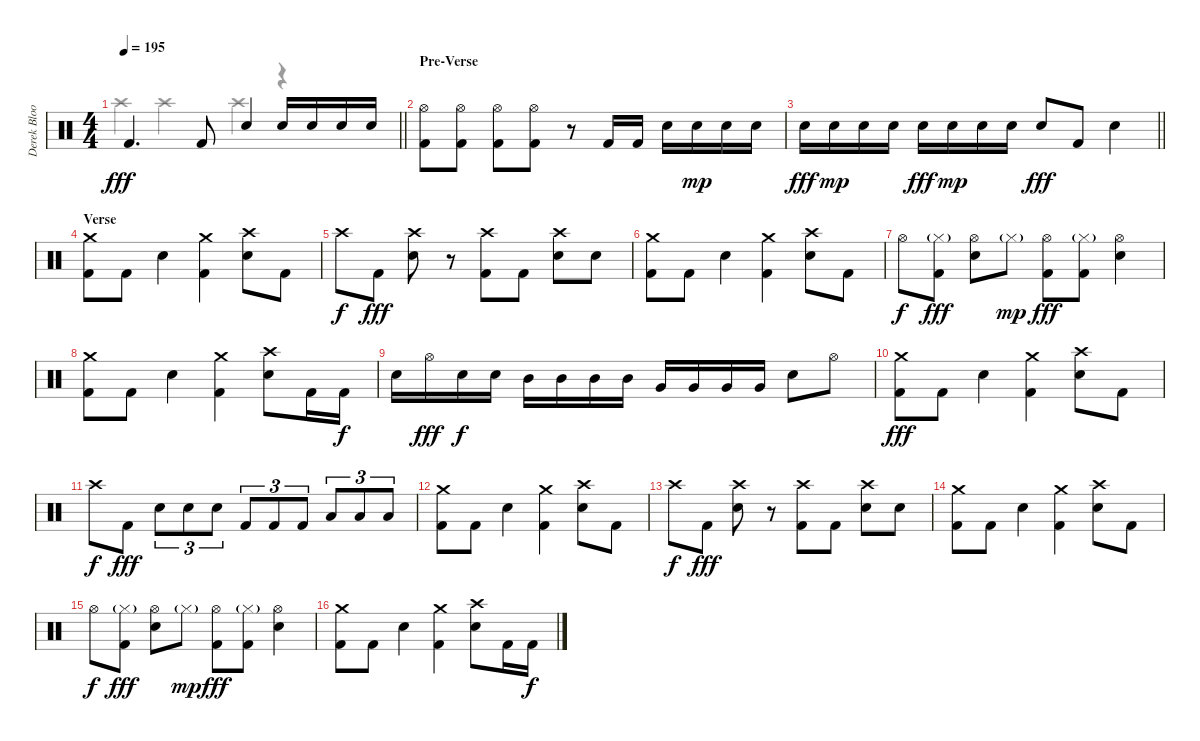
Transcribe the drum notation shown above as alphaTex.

\track ("Derek Bloom" "Derek Bloo") {instrument percussion}
\staff {score}
\articulation defaults
\voice
\ts (4 4)
\tempo 195
\clef neutral
\barLineRight lightlight
\ks c "Kick (hit) 2".4{d dy fff} "Kick (hit) 2".8 "Electric Snare (hit)".4 "Electric Snare (hit)".16 "Electric Snare (hit)".16 "Electric Snare (hit)".16 "Electric Snare (hit)".16
|
\section ("" "Pre-Verse")
("Hi-Hat (open)" "Kick (hit) 2").8 ("Hi-Hat (open)" "Kick (hit) 2").8 ("Hi-Hat (open)" "Kick (hit) 2").8 ("Hi-Hat (open)" "Kick (hit) 2").8 r.8 "Kick (hit) 2".16 "Kick (hit) 2".16 "Electric Snare (hit)".16 "Electric Snare (hit)".16{dy mp} "Electric Snare (hit)".16 "Electric Snare (hit)".16 |
\barLineRight lightlight "Electric Snare (hit)".16{dy fff} "Electric Snare (hit)".16{dy mp} "Electric Snare (hit)".16 "Electric Snare (hit)".16 "Electric Snare (hit)".16{dy fff} "Electric Snare (hit)".16{dy mp} "Electric Snare (hit)".16 "Electric Snare (hit)".16 "Electric Snare (hit)".8{dy fff} "Kick (hit) 2".8 "Electric Snare (hit)".4
|
\section ("" "Verse")
("Crash medium (hit)" "Kick (hit) 2").8 "Kick (hit) 2".8 "Electric Snare (hit)".4 ("Crash medium (hit)" "Kick (hit) 2").4 ("Crash high (hit)" "Electric Snare (hit)").8 "Kick (hit) 2".8 |
"Crash high (hit)".8{dy f} "Kick (hit) 2".8{dy fff} ("Crash high (hit)" "Electric Snare (hit)").8 r.8 ("Crash high (hit)" "Kick (hit) 2").8 "Kick (hit) 2".8 ("Crash high (hit)" "Electric Snare (hit)").8 "Electric Snare (hit)".8 |
("Crash medium (hit)" "Kick (hit) 2").8 "Kick (hit) 2".8 "Electric Snare (hit)".4 ("Crash medium (hit)" "Kick (hit) 2").4 ("Crash high (hit)" "Electric Snare (hit)").8 "Kick (hit) 2".8 |
"Hi-Hat (open)".8{dy f} ("Hi-Hat (closed)"{g} "Kick (hit) 2").8{dy fff} ("Hi-Hat (open)" "Electric Snare (hit)").8 "Hi-Hat (closed)"{g}.8{dy mp} ("Hi-Hat (open)" "Kick (hit) 2").8{dy fff} ("Hi-Hat (closed)"{g} "Kick (hit) 2").8 ("Hi-Hat (open)" "Electric Snare (hit)").4 |
("Crash medium (hit)" "Kick (hit) 2").8 "Kick (hit) 2".8 "Electric Snare (hit)".4 ("Crash medium (hit)" "Kick (hit) 2").4 ("Crash high (hit)" "Electric Snare (hit)").8 "Kick (hit) 2".16 "Kick (hit) 2".16{dy f} |
"Electric Snare (hit)".16 "Hi-Hat (open)".16{dy fff} "Electric Snare (hit)".16{dy f} "Electric Snare (hit)".16 "Mid Tom (hit)".16 "Mid Tom (hit)".16 "Mid Tom (hit)".16 "Mid Tom (hit)".16 "Very Low Tom (hit)".16 "Very Low Tom (hit)".16 "Very Low Tom (hit)".16 "Very Low Tom (hit)".16 "Electric Snare (hit)".8 "Hi-Hat (open)".8 |
("Crash medium (hit)" "Kick (hit) 2").8{dy fff} "Kick (hit) 2".8 "Electric Snare (hit)".4 ("Crash medium (hit)" "Kick (hit) 2").4 ("Crash high (hit)" "Electric Snare (hit)").8 "Kick (hit) 2".8 |
"Crash high (hit)".8{dy f} "Kick (hit) 2".8{dy fff} "Electric Snare (hit)".8{tu (3 2)} "Electric Snare (hit)".8{tu (3 2)} "Electric Snare (hit)".8{tu (3 2)} "Kick (hit) 2".8{tu (3 2)} "Kick (hit) 2".8{tu (3 2)} "Kick (hit) 2".8{tu (3 2)} "Low Floor Tom (hit)".8{tu (3 2)} "Low Floor Tom (hit)".8{tu (3 2)} "Low Floor Tom (hit)".8{tu (3 2)} |
("Crash medium (hit)" "Kick (hit) 2").8 "Kick (hit) 2".8 "Electric Snare (hit)".4 ("Crash medium (hit)" "Kick (hit) 2").4 ("Crash high (hit)" "Electric Snare (hit)").8 "Kick (hit) 2".8 |
"Crash high (hit)".8{dy f} "Kick (hit) 2".8{dy fff} ("Crash high (hit)" "Electric Snare (hit)").8 r.8 ("Crash high (hit)" "Kick (hit) 2").8 "Kick (hit) 2".8 ("Crash high (hit)" "Electric Snare (hit)").8 "Electric Snare (hit)".8 |
("Crash medium (hit)" "Kick (hit) 2").8 "Kick (hit) 2".8 "Electric Snare (hit)".4 ("Crash medium (hit)" "Kick (hit) 2").4 ("Crash high (hit)" "Electric Snare (hit)").8 "Kick (hit) 2".8 |
"Hi-Hat (open)".8{dy f} ("Hi-Hat (closed)"{g} "Kick (hit) 2").8{dy fff} ("Hi-Hat (open)" "Electric Snare (hit)").8 "Hi-Hat (closed)"{g}.8{dy mp} ("Hi-Hat (open)" "Kick (hit) 2").8{dy fff} ("Hi-Hat (closed)"{g} "Kick (hit) 2").8 ("Hi-Hat (open)" "Electric Snare (hit)").4 |
("Crash medium (hit)" "Kick (hit) 2").8 "Kick (hit) 2".8 "Electric Snare (hit)".4 ("Crash medium (hit)" "Kick (hit) 2").4 ("Crash high (hit)" "Electric Snare (hit)").8 "Kick (hit) 2".16 "Kick (hit) 2".16{dy f}
\voice
\clef neutral
\ottava regular
\simile none
\barLineRight lightlight
\ks c "Crash high (hit)".4{dy fff} "Crash high (hit)".4 "Crash high (hit)".4
r.4 |
|
\barLineRight lightlight
|
|
|
|
|
|
|
|
|
|
|
|
|
